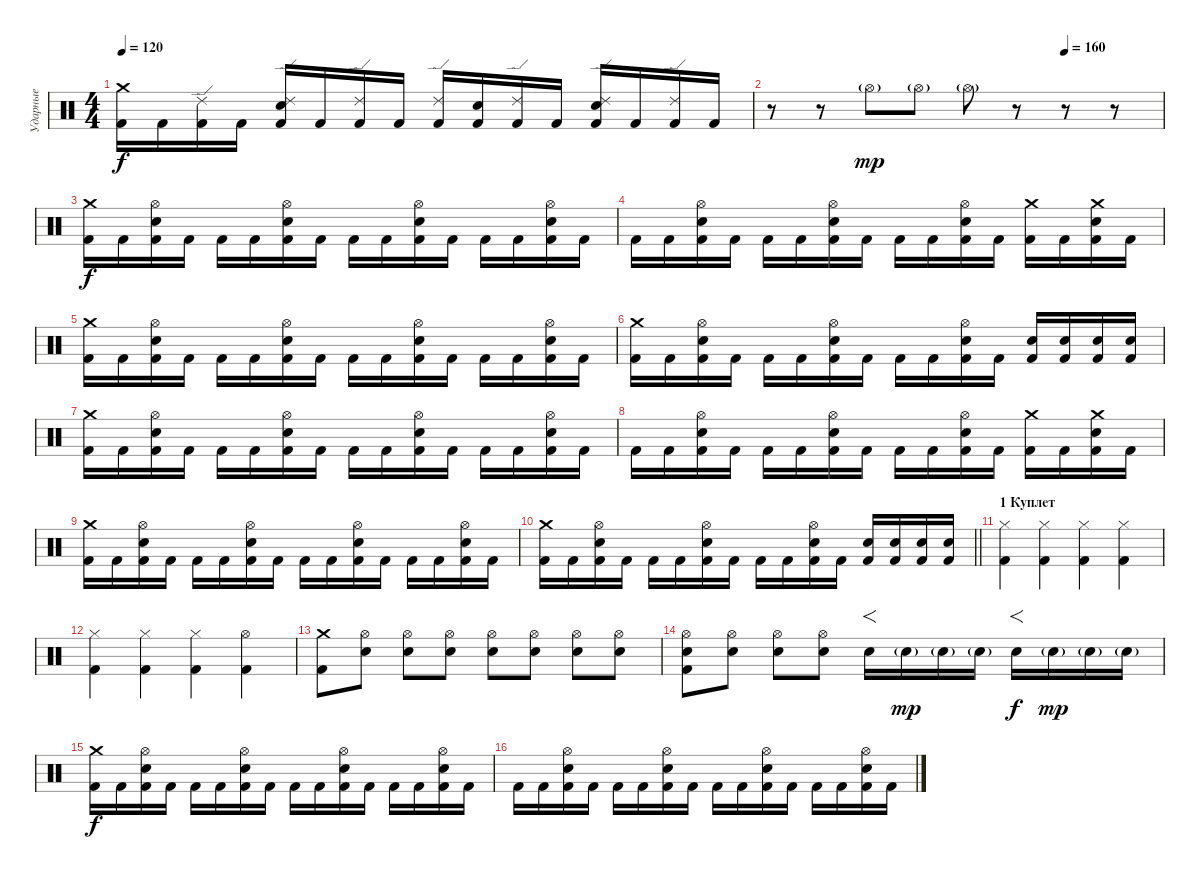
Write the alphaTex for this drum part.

\track ("Ударные" "Ударные") {instrument percussion}
\staff {score}
\articulation defaults
\ts (4 4)
\tempo 120
\clef neutral
\ks c
("Crash medium (hit)" "Kick (hit) 2").16{dy f} "Kick (hit) 2".16 ("Ride (edge) 2" "Kick (hit) 2").16 "Kick (hit) 2".16 ("Ride (edge) 2" "Electric Snare (hit)" "Kick (hit) 2").16 "Kick (hit) 2".16 ("Ride (edge) 2" "Kick (hit) 2").16 "Kick (hit) 2".16 ("Ride (edge) 2" "Kick (hit) 2").16 ("Electric Snare (hit)" "Kick (hit) 2").16 ("Ride (edge) 2" "Kick (hit) 2").16 "Kick (hit) 2".16 ("Ride (edge) 2" "Electric Snare (hit)" "Kick (hit) 2").16 "Kick (hit) 2".16 ("Ride (edge) 2" "Kick (hit) 2").16 "Kick (hit) 2".16 |
\tempo (160 0.75)
r.8 r.8 "Hi-Hat (open)"{g}.8{dy mp} "Hi-Hat (open)"{g}.8 "Hi-Hat (open)"{g}.8 r.8 r.8 r.8 |
("Crash medium (hit)" "Kick (hit) 2").16{dy f} "Kick (hit) 2".16 ("Hi-Hat (open)" "Electric Snare (hit)" "Kick (hit) 2").16 "Kick (hit) 2".16 "Kick (hit) 2".16 "Kick (hit) 2".16 ("Hi-Hat (open)" "Electric Snare (hit)" "Kick (hit) 2").16 "Kick (hit) 2".16 "Kick (hit) 2".16 "Kick (hit) 2".16 ("Hi-Hat (open)" "Electric Snare (hit)" "Kick (hit) 2").16 "Kick (hit) 2".16 "Kick (hit) 2".16 "Kick (hit) 2".16 ("Hi-Hat (open)" "Electric Snare (hit)" "Kick (hit) 2").16 "Kick (hit) 2".16 |
"Kick (hit) 2".16 "Kick (hit) 2".16 ("Hi-Hat (open)" "Electric Snare (hit)" "Kick (hit) 2").16 "Kick (hit) 2".16 "Kick (hit) 2".16 "Kick (hit) 2".16 ("Hi-Hat (open)" "Electric Snare (hit)" "Kick (hit) 2").16 "Kick (hit) 2".16 "Kick (hit) 2".16 "Kick (hit) 2".16 ("Hi-Hat (open)" "Electric Snare (hit)" "Kick (hit) 2").16 "Kick (hit) 2".16 ("Crash medium (hit)" "Kick (hit) 2").16 "Kick (hit) 2".16 ("Crash medium (hit)" "Electric Snare (hit)" "Kick (hit) 2").16 "Kick (hit) 2".16 |
("Crash medium (hit)" "Kick (hit) 2").16 "Kick (hit) 2".16 ("Hi-Hat (open)" "Electric Snare (hit)" "Kick (hit) 2").16 "Kick (hit) 2".16 "Kick (hit) 2".16 "Kick (hit) 2".16 ("Hi-Hat (open)" "Electric Snare (hit)" "Kick (hit) 2").16 "Kick (hit) 2".16 "Kick (hit) 2".16 "Kick (hit) 2".16 ("Hi-Hat (open)" "Electric Snare (hit)" "Kick (hit) 2").16 "Kick (hit) 2".16 "Kick (hit) 2".16 "Kick (hit) 2".16 ("Hi-Hat (open)" "Electric Snare (hit)" "Kick (hit) 2").16 "Kick (hit) 2".16 |
("Crash medium (hit)" "Kick (hit) 2").16 "Kick (hit) 2".16 ("Hi-Hat (open)" "Electric Snare (hit)" "Kick (hit) 2").16 "Kick (hit) 2".16 "Kick (hit) 2".16 "Kick (hit) 2".16 ("Hi-Hat (open)" "Electric Snare (hit)" "Kick (hit) 2").16 "Kick (hit) 2".16 "Kick (hit) 2".16 "Kick (hit) 2".16 ("Hi-Hat (open)" "Electric Snare (hit)" "Kick (hit) 2").16 "Kick (hit) 2".16 ("Electric Snare (hit)" "Kick (hit) 2").16 ("Electric Snare (hit)" "Kick (hit) 2").16 ("Electric Snare (hit)" "Kick (hit) 2").16 ("Electric Snare (hit)" "Kick (hit) 2").16 |
("Crash medium (hit)" "Kick (hit) 2").16 "Kick (hit) 2".16 ("Hi-Hat (open)" "Electric Snare (hit)" "Kick (hit) 2").16 "Kick (hit) 2".16 "Kick (hit) 2".16 "Kick (hit) 2".16 ("Hi-Hat (open)" "Electric Snare (hit)" "Kick (hit) 2").16 "Kick (hit) 2".16 "Kick (hit) 2".16 "Kick (hit) 2".16 ("Hi-Hat (open)" "Electric Snare (hit)" "Kick (hit) 2").16 "Kick (hit) 2".16 "Kick (hit) 2".16 "Kick (hit) 2".16 ("Hi-Hat (open)" "Electric Snare (hit)" "Kick (hit) 2").16 "Kick (hit) 2".16 |
"Kick (hit) 2".16 "Kick (hit) 2".16 ("Hi-Hat (open)" "Electric Snare (hit)" "Kick (hit) 2").16 "Kick (hit) 2".16 "Kick (hit) 2".16 "Kick (hit) 2".16 ("Hi-Hat (open)" "Electric Snare (hit)" "Kick (hit) 2").16 "Kick (hit) 2".16 "Kick (hit) 2".16 "Kick (hit) 2".16 ("Hi-Hat (open)" "Electric Snare (hit)" "Kick (hit) 2").16 "Kick (hit) 2".16 ("Crash medium (hit)" "Kick (hit) 2").16 "Kick (hit) 2".16 ("Crash medium (hit)" "Electric Snare (hit)" "Kick (hit) 2").16 "Kick (hit) 2".16 |
("Crash medium (hit)" "Kick (hit) 2").16 "Kick (hit) 2".16 ("Hi-Hat (open)" "Electric Snare (hit)" "Kick (hit) 2").16 "Kick (hit) 2".16 "Kick (hit) 2".16 "Kick (hit) 2".16 ("Hi-Hat (open)" "Electric Snare (hit)" "Kick (hit) 2").16 "Kick (hit) 2".16 "Kick (hit) 2".16 "Kick (hit) 2".16 ("Hi-Hat (open)" "Electric Snare (hit)" "Kick (hit) 2").16 "Kick (hit) 2".16 "Kick (hit) 2".16 "Kick (hit) 2".16 ("Hi-Hat (open)" "Electric Snare (hit)" "Kick (hit) 2").16 "Kick (hit) 2".16 |
\barLineRight lightlight
("Crash medium (hit)" "Kick (hit) 2").16 "Kick (hit) 2".16 ("Hi-Hat (open)" "Electric Snare (hit)" "Kick (hit) 2").16 "Kick (hit) 2".16 "Kick (hit) 2".16 "Kick (hit) 2".16 ("Hi-Hat (open)" "Electric Snare (hit)" "Kick (hit) 2").16 "Kick (hit) 2".16 "Kick (hit) 2".16 "Kick (hit) 2".16 ("Hi-Hat (open)" "Electric Snare (hit)" "Kick (hit) 2").16 "Kick (hit) 2".16 ("Electric Snare (hit)" "Kick (hit) 2").16 ("Electric Snare (hit)" "Kick (hit) 2").16 ("Electric Snare (hit)" "Kick (hit) 2").16 ("Electric Snare (hit)" "Kick (hit) 2").16 |
\section ("" "1 Куплет")
("Hi-Hat (closed)" "Kick (hit) 2").4 ("Hi-Hat (closed)" "Kick (hit) 2").4 ("Hi-Hat (closed)" "Kick (hit) 2").4 ("Hi-Hat (closed)" "Kick (hit) 2").4 |
("Hi-Hat (closed)" "Kick (hit) 2").4 ("Hi-Hat (closed)" "Kick (hit) 2").4 ("Hi-Hat (closed)" "Kick (hit) 2").4 ("Hi-Hat (open)" "Kick (hit) 2").4 |
("Crash medium (hit)" "Kick (hit) 2").8 ("Hi-Hat (open)" "Electric Snare (hit)").8 ("Hi-Hat (open)" "Electric Snare (hit)").8 ("Hi-Hat (open)" "Electric Snare (hit)").8 ("Hi-Hat (open)" "Electric Snare (hit)").8 ("Hi-Hat (open)" "Electric Snare (hit)").8 ("Hi-Hat (open)" "Electric Snare (hit)").8 ("Hi-Hat (open)" "Electric Snare (hit)").8 |
("Hi-Hat (open)" "Kick (hit) 2" "Electric Snare (hit)").8 ("Hi-Hat (open)" "Electric Snare (hit)").8 ("Hi-Hat (open)" "Electric Snare (hit)").8 ("Hi-Hat (open)" "Electric Snare (hit)").8 "Electric Snare (hit)".16{f} "Electric Snare (hit)"{g}.16{dy mp} "Electric Snare (hit)"{g}.16 "Electric Snare (hit)"{g}.16 "Electric Snare (hit)".16{f dy f} "Electric Snare (hit)"{g}.16{dy mp} "Electric Snare (hit)"{g}.16 "Electric Snare (hit)"{g}.16 |
("Crash medium (hit)" "Kick (hit) 2").16{dy f} "Kick (hit) 2".16 ("Hi-Hat (open)" "Electric Snare (hit)" "Kick (hit) 2").16 "Kick (hit) 2".16 "Kick (hit) 2".16 "Kick (hit) 2".16 ("Hi-Hat (open)" "Electric Snare (hit)" "Kick (hit) 2").16 "Kick (hit) 2".16 "Kick (hit) 2".16 "Kick (hit) 2".16 ("Hi-Hat (open)" "Electric Snare (hit)" "Kick (hit) 2").16 "Kick (hit) 2".16 "Kick (hit) 2".16 "Kick (hit) 2".16 ("Hi-Hat (open)" "Electric Snare (hit)" "Kick (hit) 2").16 "Kick (hit) 2".16 |
"Kick (hit) 2".16 "Kick (hit) 2".16 ("Hi-Hat (open)" "Electric Snare (hit)" "Kick (hit) 2").16 "Kick (hit) 2".16 "Kick (hit) 2".16 "Kick (hit) 2".16 ("Hi-Hat (open)" "Electric Snare (hit)" "Kick (hit) 2").16 "Kick (hit) 2".16 "Kick (hit) 2".16 "Kick (hit) 2".16 ("Hi-Hat (open)" "Electric Snare (hit)" "Kick (hit) 2").16 "Kick (hit) 2".16 "Kick (hit) 2".16 "Kick (hit) 2".16 ("Hi-Hat (open)" "Electric Snare (hit)" "Kick (hit) 2").16 "Kick (hit) 2".16
